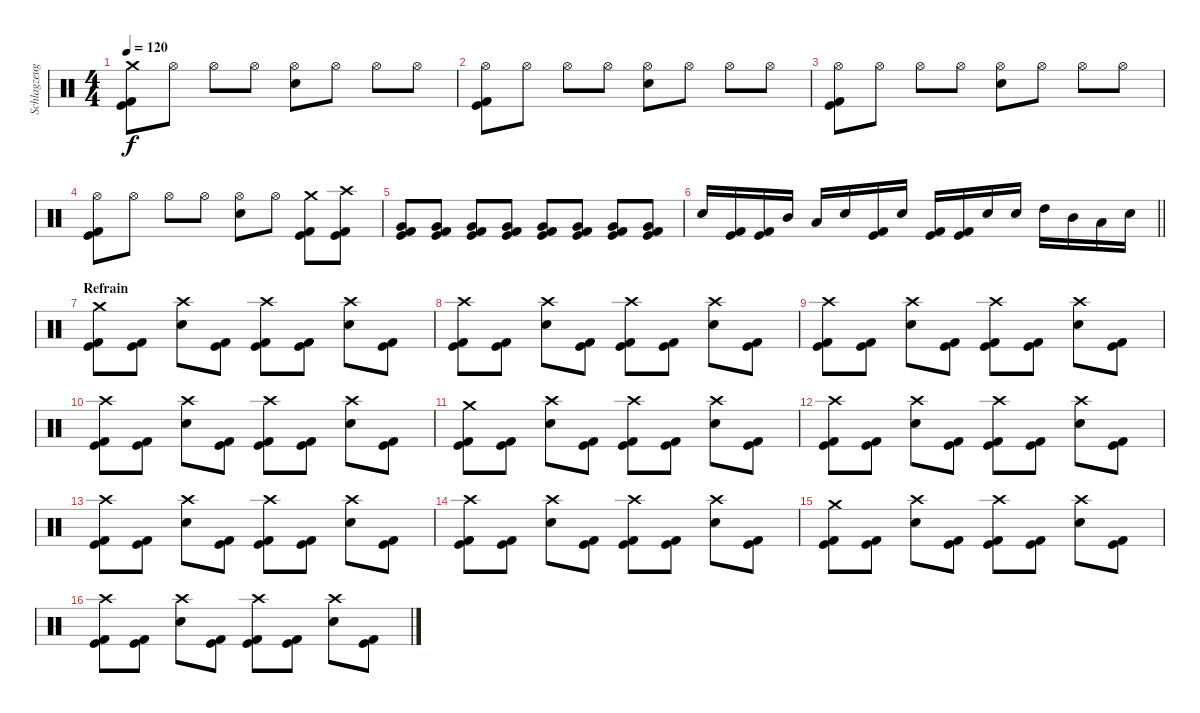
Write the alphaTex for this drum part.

\track ("Schlagzeug" "Schlagzeug") {instrument percussion}
\staff {score}
\articulation defaults
\ts (4 4)
\tempo 120
\clef neutral
\ks c
("Kick (hit) 2" "Kick (hit)" "Crash medium (hit)").8{dy f} "Hi-Hat (open)".8 "Hi-Hat (open)".8 "Hi-Hat (open)".8 ("Hi-Hat (open)" "Electric Snare (hit)").8 "Hi-Hat (open)".8 "Hi-Hat (open)".8 "Hi-Hat (open)".8 |
("Hi-Hat (open)" "Kick (hit) 2" "Kick (hit)").8 "Hi-Hat (open)".8 "Hi-Hat (open)".8 "Hi-Hat (open)".8 ("Hi-Hat (open)" "Electric Snare (hit)").8 "Hi-Hat (open)".8 "Hi-Hat (open)".8 "Hi-Hat (open)".8 |
("Hi-Hat (open)" "Kick (hit) 2" "Kick (hit)").8 "Hi-Hat (open)".8 "Hi-Hat (open)".8 "Hi-Hat (open)".8 ("Hi-Hat (open)" "Electric Snare (hit)").8 "Hi-Hat (open)".8 "Hi-Hat (open)".8 "Hi-Hat (open)".8 |
("Hi-Hat (open)" "Kick (hit) 2" "Kick (hit)").8 "Hi-Hat (open)".8 "Hi-Hat (open)".8 "Hi-Hat (open)".8 ("Hi-Hat (open)" "Electric Snare (hit)").8 "Hi-Hat (open)".8 ("Kick (hit) 2" "Kick (hit)" "Crash medium (hit)").8 ("Kick (hit) 2" "Kick (hit)" "Crash high (hit)").8 |
("Very Low Tom (hit)" "Kick (hit) 2" "Kick (hit)").8 ("Very Low Tom (hit)" "Kick (hit) 2" "Kick (hit)").8 ("Very Low Tom (hit)" "Kick (hit) 2" "Kick (hit)").8 ("Very Low Tom (hit)" "Kick (hit) 2" "Kick (hit)").8 ("Very Low Tom (hit)" "Kick (hit) 2" "Kick (hit)").8 ("Very Low Tom (hit)" "Kick (hit) 2" "Kick (hit)").8 ("Very Low Tom (hit)" "Kick (hit) 2" "Kick (hit)").8 ("Very Low Tom (hit)" "Kick (hit) 2" "Kick (hit)").8 |
\barLineRight lightlight "Electric Snare (hit)".16
("Kick (hit) 2" "Kick (hit)").16 ("Kick (hit) 2" "Kick (hit)").16 "Mid Tom (hit)".16 "Low Tom (hit)".16 "Electric Snare (hit)".16 ("Kick (hit) 2" "Kick (hit)").16 "Electric Snare (hit)".16 ("Kick (hit) 2" "Kick (hit)").16 ("Kick (hit) 2" "Kick (hit)").16 "Electric Snare (hit)".16 "Electric Snare (hit)".16 "High Tom (hit)".16 "Mid Tom (hit)".16 "Low Tom (hit)".16 "Electric Snare (hit)".16 |
\section ("" "Refrain")
("Kick (hit) 2" "Kick (hit)" "Crash medium (hit)").8 ("Kick (hit) 2" "Kick (hit)").8 ("Electric Snare (hit)" "Crash high (hit)").8 ("Kick (hit) 2" "Kick (hit)").8 ("Kick (hit) 2" "Kick (hit)" "Crash high (hit)").8 ("Kick (hit) 2" "Kick (hit)").8 ("Electric Snare (hit)" "Crash high (hit)").8 ("Kick (hit) 2" "Kick (hit)").8 |
("Kick (hit) 2" "Kick (hit)" "Crash high (hit)").8 ("Kick (hit) 2" "Kick (hit)").8 ("Electric Snare (hit)" "Crash high (hit)").8 ("Kick (hit) 2" "Kick (hit)").8 ("Kick (hit) 2" "Kick (hit)" "Crash high (hit)").8 ("Kick (hit) 2" "Kick (hit)").8 ("Electric Snare (hit)" "Crash high (hit)").8 ("Kick (hit) 2" "Kick (hit)").8 |
("Kick (hit) 2" "Kick (hit)" "Crash high (hit)").8 ("Kick (hit) 2" "Kick (hit)").8 ("Electric Snare (hit)" "Crash high (hit)").8 ("Kick (hit) 2" "Kick (hit)").8 ("Kick (hit) 2" "Kick (hit)" "Crash high (hit)").8 ("Kick (hit) 2" "Kick (hit)").8 ("Electric Snare (hit)" "Crash high (hit)").8 ("Kick (hit) 2" "Kick (hit)").8 |
("Kick (hit) 2" "Kick (hit)" "Crash high (hit)").8 ("Kick (hit) 2" "Kick (hit)").8 ("Electric Snare (hit)" "Crash high (hit)").8 ("Kick (hit) 2" "Kick (hit)").8 ("Kick (hit) 2" "Kick (hit)" "Crash high (hit)").8 ("Kick (hit) 2" "Kick (hit)").8 ("Electric Snare (hit)" "Crash high (hit)").8 ("Kick (hit) 2" "Kick (hit)").8 |
("Kick (hit) 2" "Kick (hit)" "Crash medium (hit)").8 ("Kick (hit) 2" "Kick (hit)").8 ("Electric Snare (hit)" "Crash high (hit)").8 ("Kick (hit) 2" "Kick (hit)").8 ("Kick (hit) 2" "Kick (hit)" "Crash high (hit)").8 ("Kick (hit) 2" "Kick (hit)").8 ("Electric Snare (hit)" "Crash high (hit)").8 ("Kick (hit) 2" "Kick (hit)").8 |
("Kick (hit) 2" "Kick (hit)" "Crash high (hit)").8 ("Kick (hit) 2" "Kick (hit)").8 ("Electric Snare (hit)" "Crash high (hit)").8 ("Kick (hit) 2" "Kick (hit)").8 ("Kick (hit) 2" "Kick (hit)" "Crash high (hit)").8 ("Kick (hit) 2" "Kick (hit)").8 ("Electric Snare (hit)" "Crash high (hit)").8 ("Kick (hit) 2" "Kick (hit)").8 |
("Kick (hit) 2" "Kick (hit)" "Crash high (hit)").8 ("Kick (hit) 2" "Kick (hit)").8 ("Electric Snare (hit)" "Crash high (hit)").8 ("Kick (hit) 2" "Kick (hit)").8 ("Kick (hit) 2" "Kick (hit)" "Crash high (hit)").8 ("Kick (hit) 2" "Kick (hit)").8 ("Electric Snare (hit)" "Crash high (hit)").8 ("Kick (hit) 2" "Kick (hit)").8 |
("Kick (hit) 2" "Kick (hit)" "Crash high (hit)").8 ("Kick (hit) 2" "Kick (hit)").8 ("Electric Snare (hit)" "Crash high (hit)").8 ("Kick (hit) 2" "Kick (hit)").8 ("Kick (hit) 2" "Kick (hit)" "Crash high (hit)").8 ("Kick (hit) 2" "Kick (hit)").8 ("Electric Snare (hit)" "Crash high (hit)").8 ("Kick (hit) 2" "Kick (hit)").8 |
("Kick (hit) 2" "Kick (hit)" "Crash medium (hit)").8 ("Kick (hit) 2" "Kick (hit)").8 ("Electric Snare (hit)" "Crash high (hit)").8 ("Kick (hit) 2" "Kick (hit)").8 ("Kick (hit) 2" "Kick (hit)" "Crash high (hit)").8 ("Kick (hit) 2" "Kick (hit)").8 ("Electric Snare (hit)" "Crash high (hit)").8 ("Kick (hit) 2" "Kick (hit)").8 |
("Kick (hit) 2" "Kick (hit)" "Crash high (hit)").8 ("Kick (hit) 2" "Kick (hit)").8 ("Electric Snare (hit)" "Crash high (hit)").8 ("Kick (hit) 2" "Kick (hit)").8 ("Kick (hit) 2" "Kick (hit)" "Crash high (hit)").8 ("Kick (hit) 2" "Kick (hit)").8 ("Electric Snare (hit)" "Crash high (hit)").8 ("Kick (hit) 2" "Kick (hit)").8
